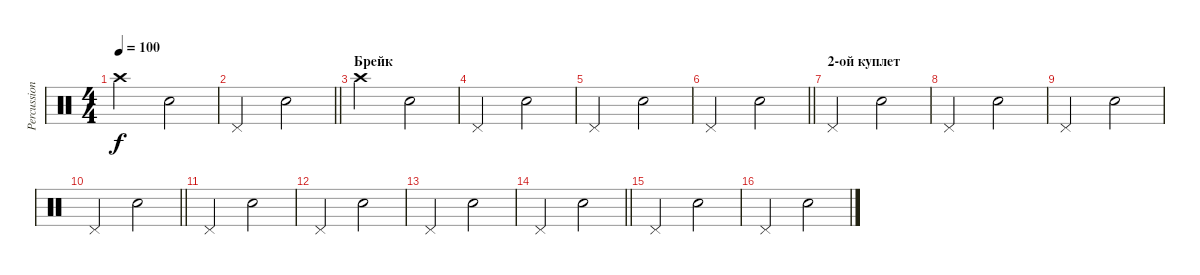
\track ("Percussioni" "Percussion") {instrument percussion}
\staff {score}
\articulation defaults
\ts (4 4)
\tempo 100
\clef neutral
\ks c "Crash high (hit)".2{dy f} "Snare (hit) 2".2
|
\barLineRight lightlight "Pedal Hi-Hat (hit)".2 "Snare (hit) 2".2
|
\section ("" "Брейк")
"Crash high (hit)".2 "Snare (hit) 2".2 |
"Pedal Hi-Hat (hit)".2 "Snare (hit) 2".2 |
"Pedal Hi-Hat (hit)".2 "Snare (hit) 2".2 |
\barLineRight lightlight "Pedal Hi-Hat (hit)".2 "Snare (hit) 2".2
|
\section ("" "2-ой куплет")
"Pedal Hi-Hat (hit)".2 "Snare (hit) 2".2 |
"Pedal Hi-Hat (hit)".2 "Snare (hit) 2".2 |
"Pedal Hi-Hat (hit)".2 "Snare (hit) 2".2 |
\barLineRight lightlight "Pedal Hi-Hat (hit)".2 "Snare (hit) 2".2
|
"Pedal Hi-Hat (hit)".2 "Snare (hit) 2".2 |
"Pedal Hi-Hat (hit)".2 "Snare (hit) 2".2 |
"Pedal Hi-Hat (hit)".2 "Snare (hit) 2".2 |
\barLineRight lightlight "Pedal Hi-Hat (hit)".2 "Snare (hit) 2".2
|
"Pedal Hi-Hat (hit)".2 "Snare (hit) 2".2 |
"Pedal Hi-Hat (hit)".2 "Snare (hit) 2".2
